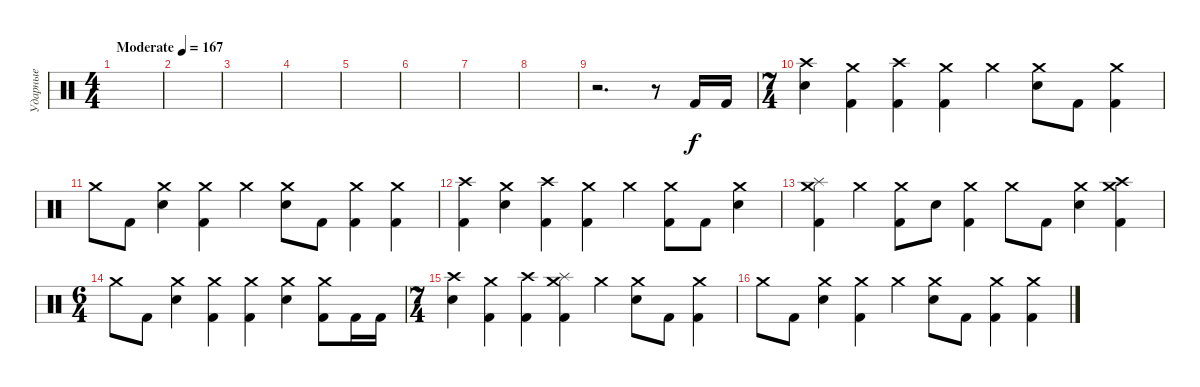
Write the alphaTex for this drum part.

\track ("Ударные" "Ударные") {instrument percussion}
\staff {score}
\articulation defaults
\ts (4 4)
\tempo (167 "Moderate")
\clef neutral
\ks c
|
|
|
|
|
|
|
|
r.2{d} r.8 "Kick (hit) 2".16 "Kick (hit) 2".16 |
\ts (7 4)
("Crash high (hit)" "Electric Snare (hit)").4 ("Crash medium (hit)" "Kick (hit) 2").4 ("Crash high (hit)" "Kick (hit) 2").4 ("Crash medium (hit)" "Kick (hit) 2").4 "Crash medium (hit)".4 ("Crash medium (hit)" "Electric Snare (hit)").8 "Kick (hit) 2".8 ("Crash medium (hit)" "Kick (hit) 2").4 |
"Crash medium (hit)".8 "Kick (hit) 2".8 ("Crash medium (hit)" "Electric Snare (hit)").4 ("Crash medium (hit)" "Kick (hit) 2").4 "Crash medium (hit)".4 ("Crash medium (hit)" "Electric Snare (hit)").8 "Kick (hit) 2".8 ("Crash medium (hit)" "Kick (hit) 2").4 ("Crash medium (hit)" "Kick (hit) 2").4 |
("Crash high (hit)" "Kick (hit) 2").4 ("Crash medium (hit)" "Electric Snare (hit)").4 ("Crash high (hit)" "Kick (hit) 2").4 ("Crash medium (hit)" "Kick (hit) 2").4 "Crash medium (hit)".4 ("Crash medium (hit)" "Kick (hit) 2").8 "Kick (hit) 2".8 ("Crash medium (hit)" "Electric Snare (hit)").4 |
("Crash medium (hit)" "Splash (hit)" "Kick (hit) 2").4 "Crash medium (hit)".4 ("Crash medium (hit)" "Kick (hit) 2").8 "Electric Snare (hit)".8 ("Crash medium (hit)" "Kick (hit) 2").4 "Crash medium (hit)".8 "Kick (hit) 2".8 ("Crash medium (hit)" "Electric Snare (hit)").4 ("Crash medium (hit)" "Crash high (hit)" "Kick (hit) 2").4 |
\ts (6 4)
"Crash medium (hit)".8 "Kick (hit) 2".8 ("Crash medium (hit)" "Electric Snare (hit)").4 ("Crash medium (hit)" "Kick (hit) 2").4 ("Crash medium (hit)" "Kick (hit) 2").4 ("Crash medium (hit)" "Electric Snare (hit)").4 ("Crash medium (hit)" "Kick (hit) 2").8 "Kick (hit) 2".16 "Kick (hit) 2".16 |
\ts (7 4)
("Crash high (hit)" "Electric Snare (hit)").4 ("Crash medium (hit)" "Kick (hit) 2").4 ("Crash high (hit)" "Kick (hit) 2").4 ("Crash medium (hit)" "Splash (hit)" "Kick (hit) 2").4 "Crash medium (hit)".4 ("Crash medium (hit)" "Electric Snare (hit)").8 "Kick (hit) 2".8 ("Crash medium (hit)" "Kick (hit) 2").4 |
"Crash medium (hit)".8 "Kick (hit) 2".8 ("Crash medium (hit)" "Electric Snare (hit)").4 ("Crash medium (hit)" "Kick (hit) 2").4 "Crash medium (hit)".4 ("Crash medium (hit)" "Electric Snare (hit)").8 "Kick (hit) 2".8 ("Crash medium (hit)" "Kick (hit) 2").4 ("Crash medium (hit)" "Kick (hit) 2").4
